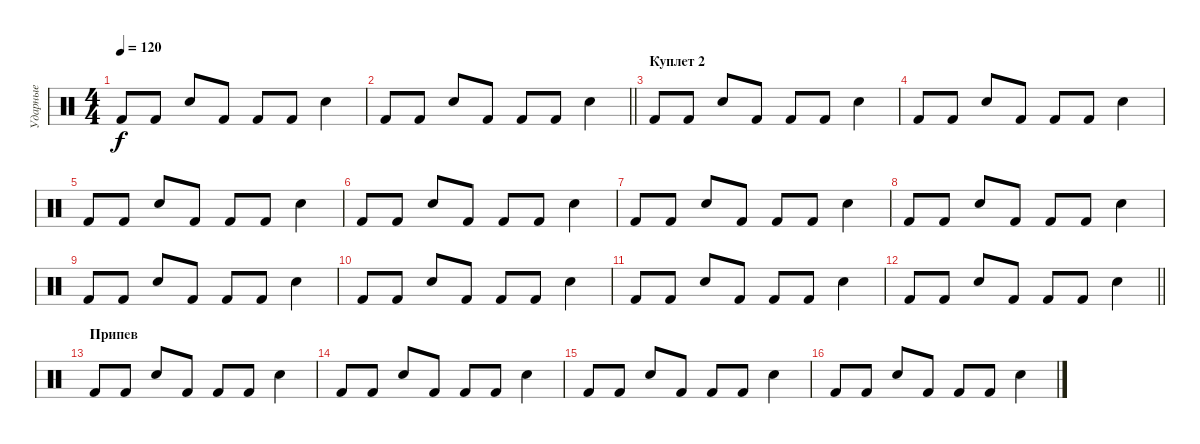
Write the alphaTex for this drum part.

\track ("Ударные" "Ударные") {instrument percussion}
\staff {score}
\articulation defaults
\ts (4 4)
\tempo 120
\clef neutral
\ks c "Kick (hit) 2".8{dy f} "Kick (hit) 2".8 "Electric Snare (hit)".8 "Kick (hit) 2".8 "Kick (hit) 2".8 "Kick (hit) 2".8 "Electric Snare (hit)".4
|
\barLineRight lightlight "Kick (hit) 2".8 "Kick (hit) 2".8 "Electric Snare (hit)".8 "Kick (hit) 2".8 "Kick (hit) 2".8 "Kick (hit) 2".8 "Electric Snare (hit)".4
|
\section ("" "Куплет 2")
"Kick (hit) 2".8 "Kick (hit) 2".8 "Electric Snare (hit)".8 "Kick (hit) 2".8 "Kick (hit) 2".8 "Kick (hit) 2".8 "Electric Snare (hit)".4 |
"Kick (hit) 2".8 "Kick (hit) 2".8 "Electric Snare (hit)".8 "Kick (hit) 2".8 "Kick (hit) 2".8 "Kick (hit) 2".8 "Electric Snare (hit)".4 |
"Kick (hit) 2".8 "Kick (hit) 2".8 "Electric Snare (hit)".8 "Kick (hit) 2".8 "Kick (hit) 2".8 "Kick (hit) 2".8 "Electric Snare (hit)".4 |
"Kick (hit) 2".8 "Kick (hit) 2".8 "Electric Snare (hit)".8 "Kick (hit) 2".8 "Kick (hit) 2".8 "Kick (hit) 2".8 "Electric Snare (hit)".4 |
"Kick (hit) 2".8 "Kick (hit) 2".8 "Electric Snare (hit)".8 "Kick (hit) 2".8 "Kick (hit) 2".8 "Kick (hit) 2".8 "Electric Snare (hit)".4 |
"Kick (hit) 2".8 "Kick (hit) 2".8 "Electric Snare (hit)".8 "Kick (hit) 2".8 "Kick (hit) 2".8 "Kick (hit) 2".8 "Electric Snare (hit)".4 |
"Kick (hit) 2".8 "Kick (hit) 2".8 "Electric Snare (hit)".8 "Kick (hit) 2".8 "Kick (hit) 2".8 "Kick (hit) 2".8 "Electric Snare (hit)".4 |
"Kick (hit) 2".8 "Kick (hit) 2".8 "Electric Snare (hit)".8 "Kick (hit) 2".8 "Kick (hit) 2".8 "Kick (hit) 2".8 "Electric Snare (hit)".4 |
"Kick (hit) 2".8 "Kick (hit) 2".8 "Electric Snare (hit)".8 "Kick (hit) 2".8 "Kick (hit) 2".8 "Kick (hit) 2".8 "Electric Snare (hit)".4 |
\barLineRight lightlight "Kick (hit) 2".8 "Kick (hit) 2".8 "Electric Snare (hit)".8 "Kick (hit) 2".8 "Kick (hit) 2".8 "Kick (hit) 2".8 "Electric Snare (hit)".4
|
\section ("" "Припев")
"Kick (hit) 2".8 "Kick (hit) 2".8 "Electric Snare (hit)".8 "Kick (hit) 2".8 "Kick (hit) 2".8 "Kick (hit) 2".8 "Electric Snare (hit)".4 |
"Kick (hit) 2".8 "Kick (hit) 2".8 "Electric Snare (hit)".8 "Kick (hit) 2".8 "Kick (hit) 2".8 "Kick (hit) 2".8 "Electric Snare (hit)".4 |
"Kick (hit) 2".8 "Kick (hit) 2".8 "Electric Snare (hit)".8 "Kick (hit) 2".8 "Kick (hit) 2".8 "Kick (hit) 2".8 "Electric Snare (hit)".4 |
"Kick (hit) 2".8 "Kick (hit) 2".8 "Electric Snare (hit)".8 "Kick (hit) 2".8 "Kick (hit) 2".8 "Kick (hit) 2".8 "Electric Snare (hit)".4
